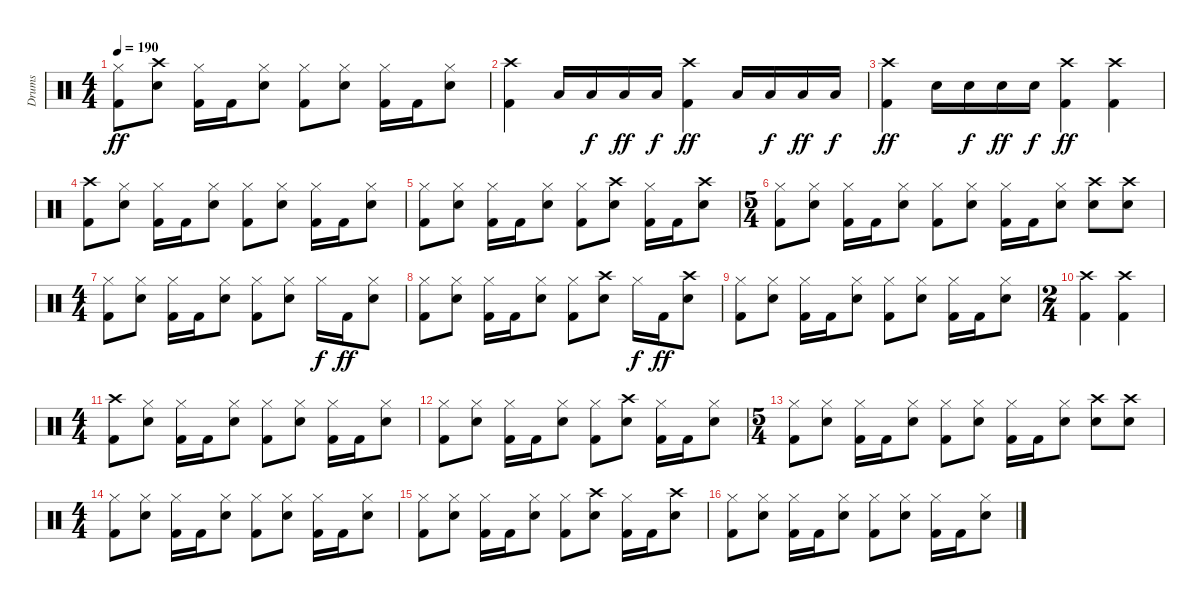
\track ("Drums" "Drums") {instrument percussion}
\staff {score}
\articulation defaults
\ts (4 4)
\tempo 190
\clef neutral
\ks c
("Hi-Hat (closed)" "Kick (hit) 2").8{dy ff} ("Crash high (hit)" "Snare (hit) 2").8 ("Hi-Hat (closed)" "Kick (hit) 2").16 "Kick (hit) 2".16 ("Hi-Hat (closed)" "Snare (hit) 2").8 ("Hi-Hat (closed)" "Kick (hit) 2").8 ("Hi-Hat (closed)" "Snare (hit) 2").8 ("Hi-Hat (closed)" "Kick (hit) 2").16 "Kick (hit) 2".16 ("Hi-Hat (closed)" "Snare (hit) 2").8 |
("Crash high (hit)" "Kick (hit) 2").4 "Low Tom (hit)".16 "Low Tom (hit)".16{dy f} "Low Tom (hit)".16{dy ff} "Low Tom (hit)".16{dy f} ("Crash high (hit)" "Kick (hit) 2").4{dy ff} "Low Floor Tom (hit)".16 "Low Floor Tom (hit)".16{dy f} "Low Floor Tom (hit)".16{dy ff} "Low Floor Tom (hit)".16{dy f} |
("Crash high (hit)" "Kick (hit) 2").4{dy ff} "Snare (hit) 2".16 "Snare (hit) 2".16{dy f} "Snare (hit) 2".16{dy ff} "Snare (hit) 2".16{dy f} ("Crash high (hit)" "Kick (hit) 2").4{dy ff} ("Crash high (hit)" "Kick (hit) 2").4 |
("Crash high (hit)" "Kick (hit) 2").8 ("Hi-Hat (closed)" "Snare (hit) 2").8 ("Hi-Hat (closed)" "Kick (hit) 2").16 "Kick (hit) 2".16 ("Hi-Hat (closed)" "Snare (hit) 2").8 ("Hi-Hat (closed)" "Kick (hit) 2").8 ("Hi-Hat (closed)" "Snare (hit) 2").8 ("Hi-Hat (closed)" "Kick (hit) 2").16 "Kick (hit) 2".16 ("Hi-Hat (closed)" "Snare (hit) 2").8 |
("Hi-Hat (closed)" "Kick (hit) 2").8 ("Hi-Hat (closed)" "Snare (hit) 2").8 ("Hi-Hat (closed)" "Kick (hit) 2").16 "Kick (hit) 2".16 ("Hi-Hat (closed)" "Snare (hit) 2").8 ("Hi-Hat (closed)" "Kick (hit) 2").8 ("Crash high (hit)" "Snare (hit) 2").8 ("Hi-Hat (closed)" "Kick (hit) 2").16 "Kick (hit) 2".16 ("Crash high (hit)" "Snare (hit) 2").8 |
\ts (5 4)
("Hi-Hat (closed)" "Kick (hit) 2").8 ("Hi-Hat (closed)" "Snare (hit) 2").8 ("Hi-Hat (closed)" "Kick (hit) 2").16 "Kick (hit) 2".16 ("Hi-Hat (closed)" "Snare (hit) 2").8 ("Hi-Hat (closed)" "Kick (hit) 2").8 ("Hi-Hat (closed)" "Snare (hit) 2").8 ("Hi-Hat (closed)" "Kick (hit) 2").16 "Kick (hit) 2".16 ("Hi-Hat (closed)" "Snare (hit) 2").8 ("Crash high (hit)" "Snare (hit) 2").8 ("Crash high (hit)" "Snare (hit) 2").8 |
\ts (4 4)
("Hi-Hat (closed)" "Kick (hit) 2").8 ("Hi-Hat (closed)" "Snare (hit) 2").8 ("Hi-Hat (closed)" "Kick (hit) 2").16 "Kick (hit) 2".16 ("Hi-Hat (closed)" "Snare (hit) 2").8 ("Hi-Hat (closed)" "Kick (hit) 2").8 ("Hi-Hat (closed)" "Snare (hit) 2").8 "Hi-Hat (closed)".16{dy f} "Kick (hit) 2".16{dy ff} ("Hi-Hat (closed)" "Snare (hit) 2").8 |
("Hi-Hat (closed)" "Kick (hit) 2").8 ("Hi-Hat (closed)" "Snare (hit) 2").8 ("Hi-Hat (closed)" "Kick (hit) 2").16 "Kick (hit) 2".16 ("Hi-Hat (closed)" "Snare (hit) 2").8 ("Hi-Hat (closed)" "Kick (hit) 2").8 ("Crash high (hit)" "Snare (hit) 2").8 "Hi-Hat (closed)".16{dy f} "Kick (hit) 2".16{dy ff} ("Crash high (hit)" "Snare (hit) 2").8 |
("Hi-Hat (closed)" "Kick (hit) 2").8 ("Hi-Hat (closed)" "Snare (hit) 2").8 ("Hi-Hat (closed)" "Kick (hit) 2").16 "Kick (hit) 2".16 ("Hi-Hat (closed)" "Snare (hit) 2").8 ("Hi-Hat (closed)" "Kick (hit) 2").8 ("Hi-Hat (closed)" "Snare (hit) 2").8 ("Hi-Hat (closed)" "Kick (hit) 2").16 "Kick (hit) 2".16 ("Hi-Hat (closed)" "Snare (hit) 2").8 |
\ts (2 4)
("Crash high (hit)" "Kick (hit) 2").4 ("Crash high (hit)" "Kick (hit) 2").4 |
\ts (4 4)
("Crash high (hit)" "Kick (hit) 2").8 ("Hi-Hat (closed)" "Snare (hit) 2").8 ("Hi-Hat (closed)" "Kick (hit) 2").16 "Kick (hit) 2".16 ("Hi-Hat (closed)" "Snare (hit) 2").8 ("Hi-Hat (closed)" "Kick (hit) 2").8 ("Hi-Hat (closed)" "Snare (hit) 2").8 ("Hi-Hat (closed)" "Kick (hit) 2").16 "Kick (hit) 2".16 ("Hi-Hat (closed)" "Snare (hit) 2").8 |
("Hi-Hat (closed)" "Kick (hit) 2").8 ("Hi-Hat (closed)" "Snare (hit) 2").8 ("Hi-Hat (closed)" "Kick (hit) 2").16 "Kick (hit) 2".16 ("Hi-Hat (closed)" "Snare (hit) 2").8 ("Hi-Hat (closed)" "Kick (hit) 2").8 ("Crash high (hit)" "Snare (hit) 2").8 ("Hi-Hat (closed)" "Kick (hit) 2").16 "Kick (hit) 2".16 ("Hi-Hat (closed)" "Snare (hit) 2").8 |
\ts (5 4)
("Hi-Hat (closed)" "Kick (hit) 2").8 ("Hi-Hat (closed)" "Snare (hit) 2").8 ("Hi-Hat (closed)" "Kick (hit) 2").16 "Kick (hit) 2".16 ("Hi-Hat (closed)" "Snare (hit) 2").8 ("Hi-Hat (closed)" "Kick (hit) 2").8 ("Hi-Hat (closed)" "Snare (hit) 2").8 ("Hi-Hat (closed)" "Kick (hit) 2").16 "Kick (hit) 2".16 ("Hi-Hat (closed)" "Snare (hit) 2").8 ("Crash high (hit)" "Snare (hit) 2").8 ("Crash high (hit)" "Snare (hit) 2").8 |
\ts (4 4)
("Hi-Hat (closed)" "Kick (hit) 2").8 ("Hi-Hat (closed)" "Snare (hit) 2").8 ("Hi-Hat (closed)" "Kick (hit) 2").16 "Kick (hit) 2".16 ("Hi-Hat (closed)" "Snare (hit) 2").8 ("Hi-Hat (closed)" "Kick (hit) 2").8 ("Hi-Hat (closed)" "Snare (hit) 2").8 ("Hi-Hat (closed)" "Kick (hit) 2").16 "Kick (hit) 2".16 ("Hi-Hat (closed)" "Snare (hit) 2").8 |
("Hi-Hat (closed)" "Kick (hit) 2").8 ("Hi-Hat (closed)" "Snare (hit) 2").8 ("Hi-Hat (closed)" "Kick (hit) 2").16 "Kick (hit) 2".16 ("Hi-Hat (closed)" "Snare (hit) 2").8 ("Hi-Hat (closed)" "Kick (hit) 2").8 ("Crash high (hit)" "Snare (hit) 2").8 ("Hi-Hat (closed)" "Kick (hit) 2").16 "Kick (hit) 2".16 ("Crash high (hit)" "Snare (hit) 2").8 |
("Hi-Hat (closed)" "Kick (hit) 2").8 ("Hi-Hat (closed)" "Snare (hit) 2").8 ("Hi-Hat (closed)" "Kick (hit) 2").16 "Kick (hit) 2".16 ("Hi-Hat (closed)" "Snare (hit) 2").8 ("Hi-Hat (closed)" "Kick (hit) 2").8 ("Hi-Hat (closed)" "Snare (hit) 2").8 ("Hi-Hat (closed)" "Kick (hit) 2").16 "Kick (hit) 2".16 ("Hi-Hat (closed)" "Snare (hit) 2").8
